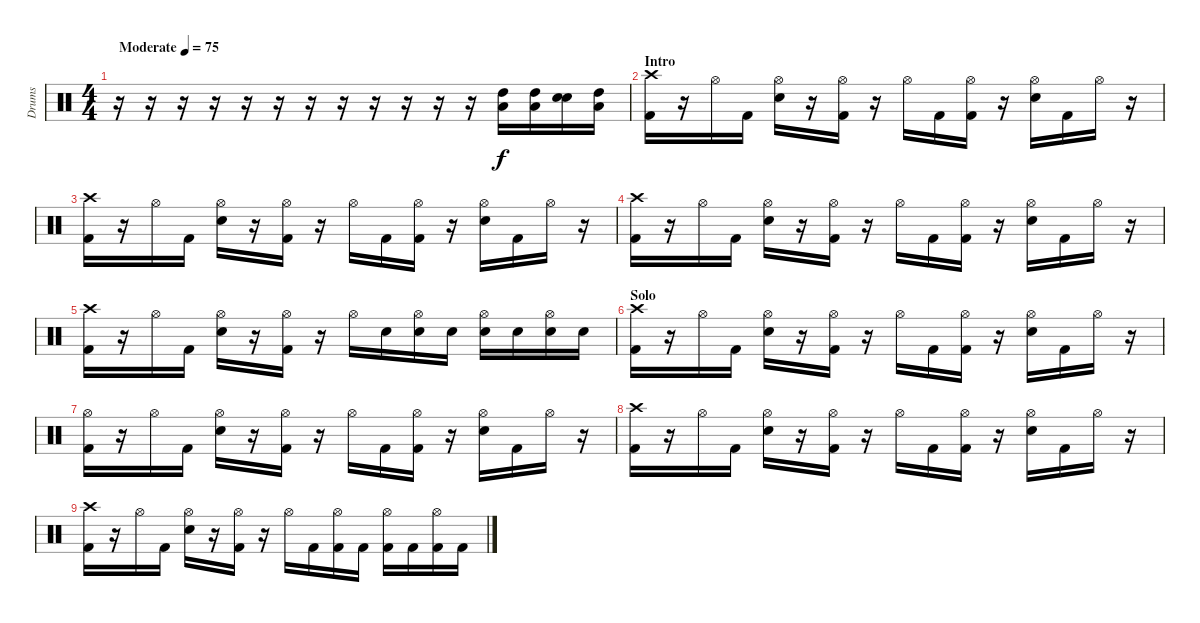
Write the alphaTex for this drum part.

\track ("Drums" "Drums") {instrument percussion}
\staff {score}
\articulation defaults
\ts (4 4)
\tempo (75 "Moderate")
\clef neutral
\ks c
r.16{dy f} r.16 r.16 r.16 r.16 r.16 r.16 r.16 r.16 r.16 r.16 r.16 ("High Tom (hit)" "Low Floor Tom (hit)").16 ("High Tom (hit)" "Low Floor Tom (hit)").16 ("Electric Snare (hit)" "Electric Snare (hit)").16{bu 480} ("High Tom (hit)" "Low Floor Tom (hit)").16 |
\section ("" "Intro")
("Crash high (hit)" "Kick (hit) 2").16 r.16 "Hi-Hat (open)".16 "Kick (hit) 2".16 ("Hi-Hat (open)" "Electric Snare (hit)").16 r.16 ("Hi-Hat (open)" "Kick (hit) 2").16 r.16 "Hi-Hat (open)".16 "Kick (hit) 2".16 ("Hi-Hat (open)" "Kick (hit) 2").16 r.16 ("Hi-Hat (open)" "Electric Snare (hit)").16 "Kick (hit) 2".16 "Hi-Hat (open)".16 r.16 |
("Crash high (hit)" "Kick (hit) 2").16 r.16 "Hi-Hat (open)".16 "Kick (hit) 2".16 ("Hi-Hat (open)" "Electric Snare (hit)").16 r.16 ("Hi-Hat (open)" "Kick (hit) 2").16 r.16 "Hi-Hat (open)".16 "Kick (hit) 2".16 ("Hi-Hat (open)" "Kick (hit) 2").16 r.16 ("Hi-Hat (open)" "Electric Snare (hit)").16 "Kick (hit) 2".16 "Hi-Hat (open)".16 r.16 |
("Crash high (hit)" "Kick (hit) 2").16 r.16 "Hi-Hat (open)".16 "Kick (hit) 2".16 ("Hi-Hat (open)" "Electric Snare (hit)").16 r.16 ("Hi-Hat (open)" "Kick (hit) 2").16 r.16 "Hi-Hat (open)".16 "Kick (hit) 2".16 ("Hi-Hat (open)" "Kick (hit) 2").16 r.16 ("Hi-Hat (open)" "Electric Snare (hit)").16 "Kick (hit) 2".16 "Hi-Hat (open)".16 r.16 |
("Crash high (hit)" "Kick (hit) 2").16 r.16 "Hi-Hat (open)".16 "Kick (hit) 2".16 ("Hi-Hat (open)" "Electric Snare (hit)").16 r.16 ("Hi-Hat (open)" "Kick (hit) 2").16 r.16 "Hi-Hat (open)".16 "Electric Snare (hit)".16 ("Hi-Hat (open)" "Electric Snare (hit)").16 "Electric Snare (hit)".16 ("Hi-Hat (open)" "Electric Snare (hit)").16 "Electric Snare (hit)".16 ("Hi-Hat (open)" "Electric Snare (hit)").16 "Electric Snare (hit)".16 |
\section ("" "Solo")
("Crash high (hit)" "Kick (hit) 2").16 r.16 "Hi-Hat (open)".16 "Kick (hit) 2".16 ("Hi-Hat (open)" "Electric Snare (hit)").16 r.16 ("Hi-Hat (open)" "Kick (hit) 2").16 r.16 "Hi-Hat (open)".16 "Kick (hit) 2".16 ("Hi-Hat (open)" "Kick (hit) 2").16 r.16 ("Hi-Hat (open)" "Electric Snare (hit)").16 "Kick (hit) 2".16 "Hi-Hat (open)".16 r.16 |
("Hi-Hat (open)" "Kick (hit) 2").16 r.16 "Hi-Hat (open)".16 "Kick (hit) 2".16 ("Hi-Hat (open)" "Electric Snare (hit)").16 r.16 ("Hi-Hat (open)" "Kick (hit) 2").16 r.16 "Hi-Hat (open)".16 "Kick (hit) 2".16 ("Hi-Hat (open)" "Kick (hit) 2").16 r.16 ("Hi-Hat (open)" "Electric Snare (hit)").16 "Kick (hit) 2".16 "Hi-Hat (open)".16 r.16 |
("Crash high (hit)" "Kick (hit) 2").16 r.16 "Hi-Hat (open)".16 "Kick (hit) 2".16 ("Hi-Hat (open)" "Electric Snare (hit)").16 r.16 ("Hi-Hat (open)" "Kick (hit) 2").16 r.16 "Hi-Hat (open)".16 "Kick (hit) 2".16 ("Hi-Hat (open)" "Kick (hit) 2").16 r.16 ("Hi-Hat (open)" "Electric Snare (hit)").16 "Kick (hit) 2".16 "Hi-Hat (open)".16 r.16 |
("Crash high (hit)" "Kick (hit) 2").16 r.16 "Hi-Hat (open)".16 "Kick (hit) 2".16 ("Hi-Hat (open)" "Electric Snare (hit)").16 r.16 ("Hi-Hat (open)" "Kick (hit) 2").16 r.16 "Hi-Hat (open)".16 "Kick (hit) 2".16 ("Hi-Hat (open)" "Kick (hit) 2").16 "Kick (hit) 2".16 ("Hi-Hat (open)" "Kick (hit) 2").16 "Kick (hit) 2".16 ("Hi-Hat (open)" "Kick (hit) 2").16 "Kick (hit) 2".16
